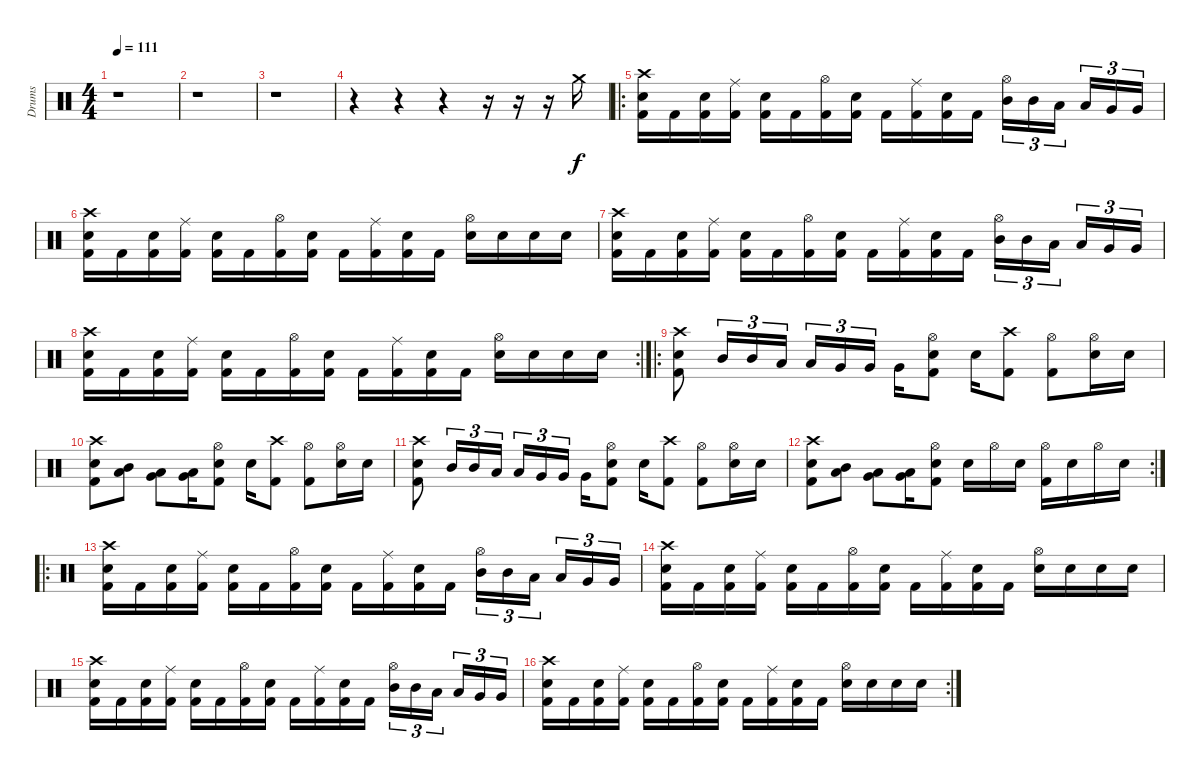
\track ("Drums" "Drums") {instrument percussion}
\staff {score}
\articulation defaults
\ts (4 4)
\tempo 111
\clef neutral
\ks c
r.1{dy f} |
r.1 |
r.1 |
r.4 r.4 r.4 r.16 r.16 r.16 "Crash medium (hit)".16 |
\ro
("Crash high (hit)" "Electric Snare (hit)" "Kick (hit) 2").16 "Kick (hit) 2".16 ("Electric Snare (hit)" "Kick (hit) 2").16 ("Ride (middle)" "Kick (hit) 2").16 ("Electric Snare (hit)" "Kick (hit) 2").16 "Kick (hit) 2".16 ("Hi-Hat (open)" "Kick (hit) 2").16 ("Electric Snare (hit)" "Kick (hit) 2").16 "Kick (hit) 2".16 ("Ride (middle)" "Kick (hit) 2").16 ("Electric Snare (hit)" "Kick (hit) 2").16 "Kick (hit) 2".16 ("Hi-Hat (open)" "Mid Tom (hit)").16{tu (3 2)} "Mid Tom (hit)".16{tu (3 2)} "Low Tom (hit)".16{tu (3 2)} "Low Tom (hit)".16{tu (3 2)} "Very Low Tom (hit)".16{tu (3 2)} "Very Low Tom (hit)".16{tu (3 2)} |
("Crash high (hit)" "Electric Snare (hit)" "Kick (hit) 2").16 "Kick (hit) 2".16 ("Electric Snare (hit)" "Kick (hit) 2").16 ("Ride (middle)" "Kick (hit) 2").16 ("Electric Snare (hit)" "Kick (hit) 2").16 "Kick (hit) 2".16 ("Hi-Hat (open)" "Kick (hit) 2").16 ("Electric Snare (hit)" "Kick (hit) 2").16 "Kick (hit) 2".16 ("Ride (middle)" "Kick (hit) 2").16 ("Electric Snare (hit)" "Kick (hit) 2").16 "Kick (hit) 2".16 ("Hi-Hat (open)" "Electric Snare (hit)").16 "Electric Snare (hit)".16 "Electric Snare (hit)".16 "Electric Snare (hit)".16 |
("Crash high (hit)" "Electric Snare (hit)" "Kick (hit) 2").16 "Kick (hit) 2".16 ("Electric Snare (hit)" "Kick (hit) 2").16 ("Ride (middle)" "Kick (hit) 2").16 ("Electric Snare (hit)" "Kick (hit) 2").16 "Kick (hit) 2".16 ("Hi-Hat (open)" "Kick (hit) 2").16 ("Electric Snare (hit)" "Kick (hit) 2").16 "Kick (hit) 2".16 ("Ride (middle)" "Kick (hit) 2").16 ("Electric Snare (hit)" "Kick (hit) 2").16 "Kick (hit) 2".16 ("Hi-Hat (open)" "Mid Tom (hit)").16{tu (3 2)} "Mid Tom (hit)".16{tu (3 2)} "Low Tom (hit)".16{tu (3 2)} "Low Tom (hit)".16{tu (3 2)} "Very Low Tom (hit)".16{tu (3 2)} "Very Low Tom (hit)".16{tu (3 2)} |
\rc 2
("Crash high (hit)" "Electric Snare (hit)" "Kick (hit) 2").16 "Kick (hit) 2".16 ("Electric Snare (hit)" "Kick (hit) 2").16 ("Ride (middle)" "Kick (hit) 2").16 ("Electric Snare (hit)" "Kick (hit) 2").16 "Kick (hit) 2".16 ("Hi-Hat (open)" "Kick (hit) 2").16 ("Electric Snare (hit)" "Kick (hit) 2").16 "Kick (hit) 2".16 ("Ride (middle)" "Kick (hit) 2").16 ("Electric Snare (hit)" "Kick (hit) 2").16 "Kick (hit) 2".16 ("Hi-Hat (open)" "Electric Snare (hit)").16 "Electric Snare (hit)".16 "Electric Snare (hit)".16 "Electric Snare (hit)".16 |
\ro
("Crash high (hit)" "Electric Snare (hit)" "Kick (hit) 2").8 "Mid Tom (hit)".16{tu (3 2)} "Mid Tom (hit)".16{tu (3 2)} "Low Tom (hit)".16{tu (3 2)} "Low Tom (hit)".16{tu (3 2)} "Very Low Tom (hit)".16{tu (3 2)} "Very Low Tom (hit)".16{tu (3 2)} "Very Low Tom (hit)".16 ("Hi-Hat (open)" "Electric Snare (hit)" "Kick (hit) 2").8 "Electric Snare (hit)".16 ("Crash high (hit)" "Kick (hit) 2").8 ("Hi-Hat (open)" "Kick (hit) 2").8 ("Hi-Hat (open)" "Electric Snare (hit)").16 "Electric Snare (hit)".16 |
("Crash high (hit)" "Electric Snare (hit)" "Kick (hit) 2").8 ("Low Tom (hit)" "Mid Tom (hit)").8 ("Very Low Tom (hit)" "Low Tom (hit)").8 ("Very Low Tom (hit)" "Low Floor Tom (hit)").16 ("Hi-Hat (open)" "Electric Snare (hit)" "Kick (hit) 2").8 "Electric Snare (hit)".16 ("Crash high (hit)" "Kick (hit) 2").8 ("Hi-Hat (open)" "Kick (hit) 2").8 ("Hi-Hat (open)" "Electric Snare (hit)").16 "Electric Snare (hit)".16 |
("Crash high (hit)" "Electric Snare (hit)" "Kick (hit) 2").8 "Mid Tom (hit)".16{tu (3 2)} "Mid Tom (hit)".16{tu (3 2)} "Low Tom (hit)".16{tu (3 2)} "Low Tom (hit)".16{tu (3 2)} "Very Low Tom (hit)".16{tu (3 2)} "Very Low Tom (hit)".16{tu (3 2)} "Very Low Tom (hit)".16 ("Hi-Hat (open)" "Electric Snare (hit)" "Kick (hit) 2").8 "Electric Snare (hit)".16 ("Crash high (hit)" "Kick (hit) 2").8 ("Hi-Hat (open)" "Kick (hit) 2").8 ("Hi-Hat (open)" "Electric Snare (hit)").16 "Electric Snare (hit)".16 |
\rc 2
("Crash high (hit)" "Electric Snare (hit)" "Kick (hit) 2").8 ("Low Tom (hit)" "Mid Tom (hit)").8 ("Very Low Tom (hit)" "Low Tom (hit)").8 ("Very Low Tom (hit)" "Low Floor Tom (hit)").16 ("Hi-Hat (open)" "Electric Snare (hit)" "Kick (hit) 2").8 "Electric Snare (hit)".16 "Hi-Hat (open)".16 "Electric Snare (hit)".16 ("Hi-Hat (open)" "Kick (hit) 2").16 "Electric Snare (hit)".16 "Hi-Hat (open)".16 "Electric Snare (hit)".16 |
\ro
("Crash high (hit)" "Electric Snare (hit)" "Kick (hit) 2").16 "Kick (hit) 2".16 ("Electric Snare (hit)" "Kick (hit) 2").16 ("Ride (middle)" "Kick (hit) 2").16 ("Electric Snare (hit)" "Kick (hit) 2").16 "Kick (hit) 2".16 ("Hi-Hat (open)" "Kick (hit) 2").16 ("Electric Snare (hit)" "Kick (hit) 2").16 "Kick (hit) 2".16 ("Ride (middle)" "Kick (hit) 2").16 ("Electric Snare (hit)" "Kick (hit) 2").16 "Kick (hit) 2".16 ("Hi-Hat (open)" "Mid Tom (hit)").16{tu (3 2)} "Mid Tom (hit)".16{tu (3 2)} "Low Tom (hit)".16{tu (3 2)} "Low Tom (hit)".16{tu (3 2)} "Very Low Tom (hit)".16{tu (3 2)} "Very Low Tom (hit)".16{tu (3 2)} |
("Crash high (hit)" "Electric Snare (hit)" "Kick (hit) 2").16 "Kick (hit) 2".16 ("Electric Snare (hit)" "Kick (hit) 2").16 ("Ride (middle)" "Kick (hit) 2").16 ("Electric Snare (hit)" "Kick (hit) 2").16 "Kick (hit) 2".16 ("Hi-Hat (open)" "Kick (hit) 2").16 ("Electric Snare (hit)" "Kick (hit) 2").16 "Kick (hit) 2".16 ("Ride (middle)" "Kick (hit) 2").16 ("Electric Snare (hit)" "Kick (hit) 2").16 "Kick (hit) 2".16 ("Hi-Hat (open)" "Electric Snare (hit)").16 "Electric Snare (hit)".16 "Electric Snare (hit)".16 "Electric Snare (hit)".16 |
("Crash high (hit)" "Electric Snare (hit)" "Kick (hit) 2").16 "Kick (hit) 2".16 ("Electric Snare (hit)" "Kick (hit) 2").16 ("Ride (middle)" "Kick (hit) 2").16 ("Electric Snare (hit)" "Kick (hit) 2").16 "Kick (hit) 2".16 ("Hi-Hat (open)" "Kick (hit) 2").16 ("Electric Snare (hit)" "Kick (hit) 2").16 "Kick (hit) 2".16 ("Ride (middle)" "Kick (hit) 2").16 ("Electric Snare (hit)" "Kick (hit) 2").16 "Kick (hit) 2".16 ("Hi-Hat (open)" "Mid Tom (hit)").16{tu (3 2)} "Mid Tom (hit)".16{tu (3 2)} "Low Tom (hit)".16{tu (3 2)} "Low Tom (hit)".16{tu (3 2)} "Very Low Tom (hit)".16{tu (3 2)} "Very Low Tom (hit)".16{tu (3 2)} |
\rc 2
("Crash high (hit)" "Electric Snare (hit)" "Kick (hit) 2").16 "Kick (hit) 2".16 ("Electric Snare (hit)" "Kick (hit) 2").16 ("Ride (middle)" "Kick (hit) 2").16 ("Electric Snare (hit)" "Kick (hit) 2").16 "Kick (hit) 2".16 ("Hi-Hat (open)" "Kick (hit) 2").16 ("Electric Snare (hit)" "Kick (hit) 2").16 "Kick (hit) 2".16 ("Ride (middle)" "Kick (hit) 2").16 ("Electric Snare (hit)" "Kick (hit) 2").16 "Kick (hit) 2".16 ("Hi-Hat (open)" "Electric Snare (hit)").16 "Electric Snare (hit)".16 "Electric Snare (hit)".16 "Electric Snare (hit)".16
